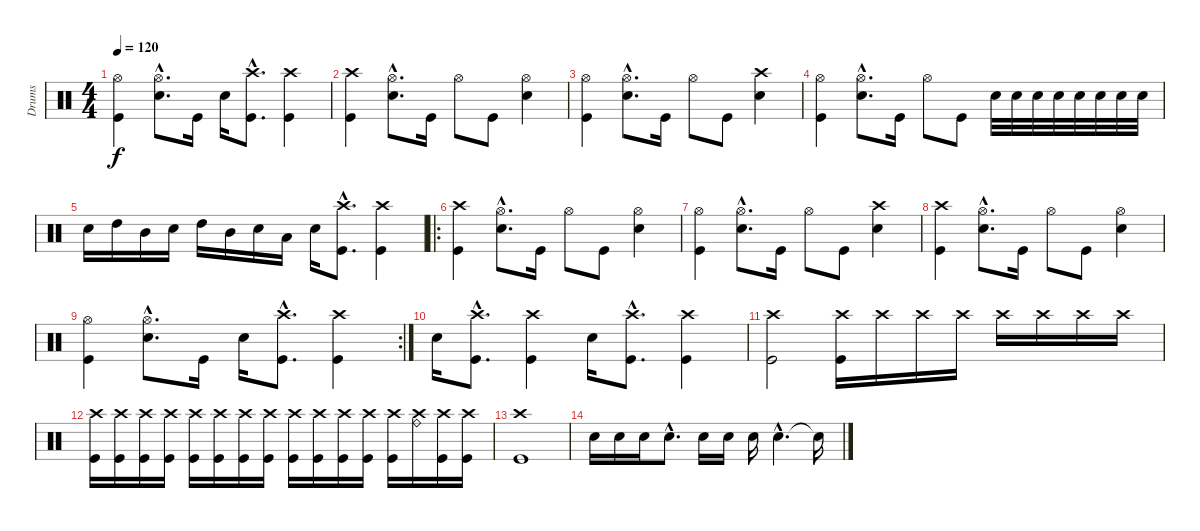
\track ("Drums" "Drums") {instrument percussion}
\staff {score}
\articulation defaults
\ts (4 4)
\tempo 120
\clef neutral
\ks c
("Hi-Hat (open)" "Kick (hit)").4{dy f} ("Hi-Hat (open)"{hac} "Electric Snare (hit)"{hac}).8{d} "Kick (hit)".16 "Electric Snare (hit)".16 ("Crash high (hit)"{hac} "Kick (hit)"{hac}).8{d} ("Crash high (hit)" "Kick (hit)").4 |
("Crash high (hit)" "Kick (hit)").4 ("Hi-Hat (open)"{hac} "Electric Snare (hit)"{hac}).8{d} "Kick (hit)".16 "Hi-Hat (open)".8 "Kick (hit)".8 ("Hi-Hat (open)" "Electric Snare (hit)").4 |
("Hi-Hat (open)" "Kick (hit)").4 ("Hi-Hat (open)"{hac} "Electric Snare (hit)"{hac}).8{d} "Kick (hit)".16 "Hi-Hat (open)".8 "Kick (hit)".8 ("Crash high (hit)" "Electric Snare (hit)").4 |
("Hi-Hat (open)" "Kick (hit)").4 ("Hi-Hat (open)"{hac} "Electric Snare (hit)"{hac}).8{d} "Kick (hit)".16 "Hi-Hat (open)".8 "Kick (hit)".8 "Electric Snare (hit)".32 "Electric Snare (hit)".32 "Electric Snare (hit)".32 "Electric Snare (hit)".32 "Electric Snare (hit)".32 "Electric Snare (hit)".32 "Electric Snare (hit)".32 "Electric Snare (hit)".32 |
"Electric Snare (hit)".16 "High Tom (hit)".16 "Mid Tom (hit)".16 "Electric Snare (hit)".16 "High Tom (hit)".16 "Mid Tom (hit)".16 "Electric Snare (hit)".16 "Low Tom (hit)".16 "Electric Snare (hit)".16 ("Crash high (hit)"{hac} "Kick (hit)"{hac}).8{d} ("Crash high (hit)" "Kick (hit)").4 |
\ro
("Crash high (hit)" "Kick (hit)").4 ("Hi-Hat (open)"{hac} "Electric Snare (hit)"{hac}).8{d} "Kick (hit)".16 "Hi-Hat (open)".8 "Kick (hit)".8 ("Hi-Hat (open)" "Electric Snare (hit)").4 |
("Hi-Hat (open)" "Kick (hit)").4 ("Hi-Hat (open)"{hac} "Electric Snare (hit)"{hac}).8{d} "Kick (hit)".16 "Hi-Hat (open)".8 "Kick (hit)".8 ("Crash high (hit)" "Electric Snare (hit)").4 |
("Crash high (hit)" "Kick (hit)").4 ("Hi-Hat (open)"{hac} "Electric Snare (hit)"{hac}).8{d} "Kick (hit)".16 "Hi-Hat (open)".8 "Kick (hit)".8 ("Hi-Hat (open)" "Electric Snare (hit)").4 |
\rc 2
("Hi-Hat (open)" "Kick (hit)").4 ("Hi-Hat (open)"{hac} "Electric Snare (hit)"{hac}).8{d} "Kick (hit)".16 "Electric Snare (hit)".16 ("Crash high (hit)"{hac} "Kick (hit)"{hac}).8{d} ("Crash high (hit)" "Kick (hit)").4 |
"Electric Snare (hit)".16 ("Crash high (hit)"{hac} "Kick (hit)"{hac}).8{d} ("Crash high (hit)" "Kick (hit)").4 "Electric Snare (hit)".16 ("Crash high (hit)"{hac} "Kick (hit)"{hac}).8{d} ("Crash high (hit)" "Kick (hit)").4 |
("Crash high (hit)" "Kick (hit)").2 ("Crash high (hit)" "Kick (hit)").16 "Crash high (hit)".16 "Crash high (hit)".16 "Crash high (hit)".16 "Crash high (hit)".16 "Crash high (hit)".16 "Crash high (hit)".16 "Crash high (hit)".16 |
("Crash high (hit)" "Kick (hit)").16 ("Crash high (hit)" "Kick (hit)").16 ("Crash high (hit)" "Kick (hit)").16 ("Crash high (hit)" "Kick (hit)").16 ("Crash high (hit)" "Kick (hit)").16 ("Crash high (hit)" "Kick (hit)").16 ("Crash high (hit)" "Kick (hit)").16 ("Crash high (hit)" "Kick (hit)").16 ("Crash high (hit)" "Kick (hit)").16 ("Crash high (hit)" "Kick (hit)").16 ("Crash high (hit)" "Kick (hit)").16 ("Crash high (hit)" "Kick (hit)").16 ("Crash high (hit)" "Kick (hit)").16 ("Crash high (hit)" "Ride (bell)").16 ("Crash high (hit)" "Kick (hit)").16 ("Crash high (hit)" "Kick (hit)").16 |
("Crash high (hit)" "Kick (hit)").1 |
"Electric Snare (hit)".16 "Electric Snare (hit)".16 "Electric Snare (hit)".16 "Electric Snare (hit)"{hac}.8{d} "Electric Snare (hit)".16 "Electric Snare (hit)".16 "Electric Snare (hit)".16 "Electric Snare (hit)"{hac}.4{d} "Snare (hit)"{t}.16
